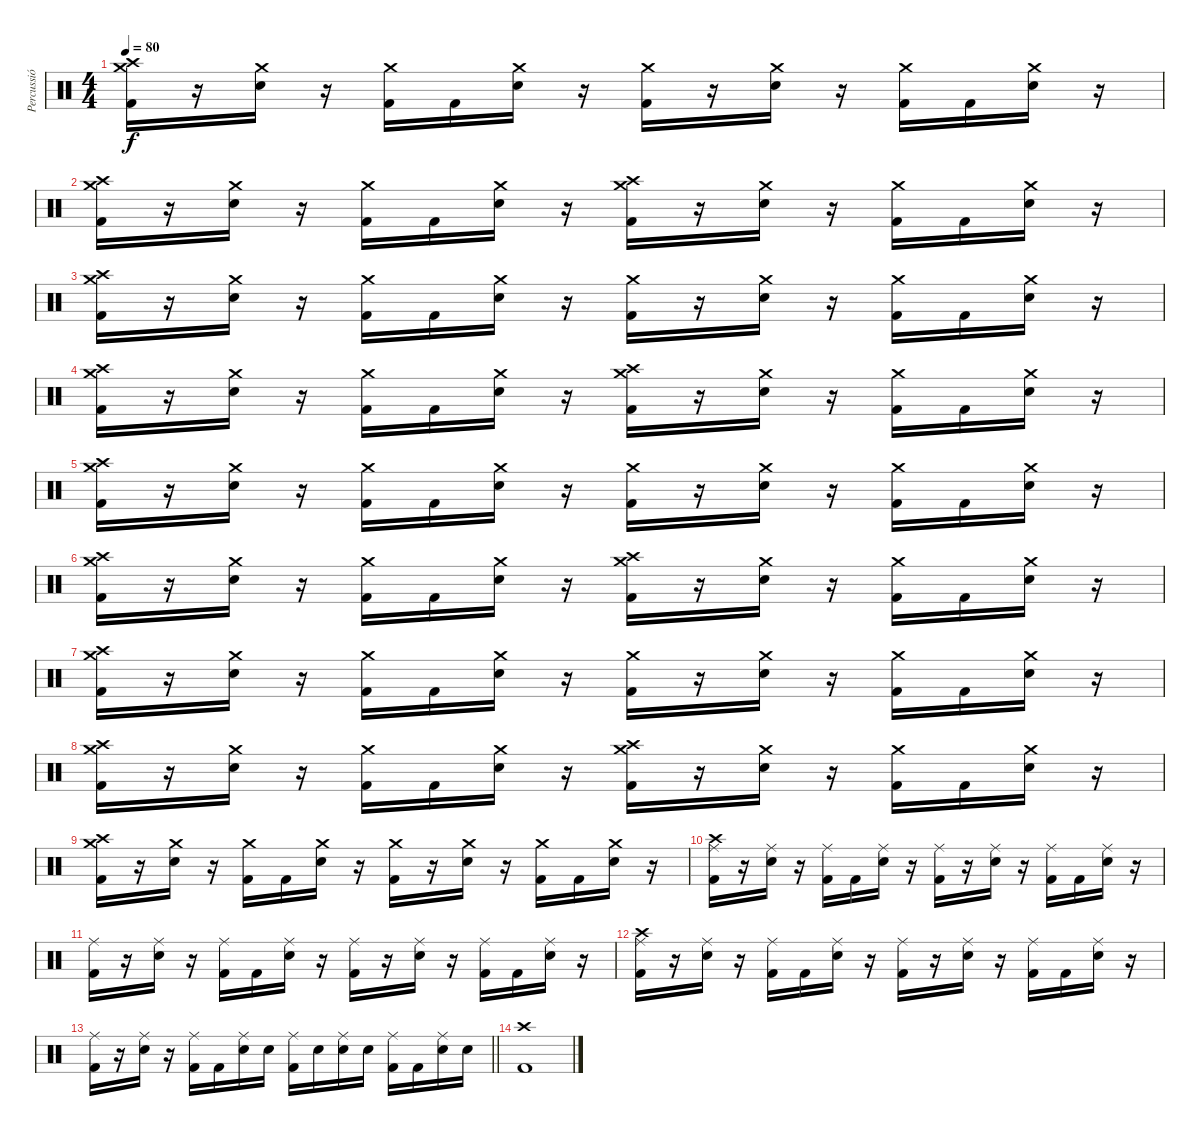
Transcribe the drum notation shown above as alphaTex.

\track ("Percussió" "Percussió") {instrument percussion}
\staff {score}
\articulation defaults
\ts (4 4)
\tempo 80
\clef neutral
\ks c
("Crash high (hit)" "Crash medium (hit)" "Kick (hit) 2").16{dy f} r.16 ("Crash medium (hit)" "Electric Snare (hit)").16 r.16 ("Crash medium (hit)" "Kick (hit) 2").16 "Kick (hit) 2".16 ("Crash medium (hit)" "Electric Snare (hit)").16 r.16 ("Crash medium (hit)" "Kick (hit) 2").16 r.16 ("Crash medium (hit)" "Electric Snare (hit)").16 r.16 ("Crash medium (hit)" "Kick (hit) 2").16 "Kick (hit) 2".16 ("Crash medium (hit)" "Electric Snare (hit)").16 r.16 |
("Crash high (hit)" "Crash medium (hit)" "Kick (hit) 2").16 r.16 ("Crash medium (hit)" "Electric Snare (hit)").16 r.16 ("Crash medium (hit)" "Kick (hit) 2").16 "Kick (hit) 2".16 ("Crash medium (hit)" "Electric Snare (hit)").16 r.16 ("Crash high (hit)" "Crash medium (hit)" "Kick (hit) 2").16 r.16 ("Crash medium (hit)" "Electric Snare (hit)").16 r.16 ("Crash medium (hit)" "Kick (hit) 2").16 "Kick (hit) 2".16 ("Crash medium (hit)" "Electric Snare (hit)").16 r.16 |
("Crash high (hit)" "Crash medium (hit)" "Kick (hit) 2").16 r.16 ("Crash medium (hit)" "Electric Snare (hit)").16 r.16 ("Crash medium (hit)" "Kick (hit) 2").16 "Kick (hit) 2".16 ("Crash medium (hit)" "Electric Snare (hit)").16 r.16 ("Crash medium (hit)" "Kick (hit) 2").16 r.16 ("Crash medium (hit)" "Electric Snare (hit)").16 r.16 ("Crash medium (hit)" "Kick (hit) 2").16 "Kick (hit) 2".16 ("Crash medium (hit)" "Electric Snare (hit)").16 r.16 |
("Crash high (hit)" "Crash medium (hit)" "Kick (hit) 2").16 r.16 ("Crash medium (hit)" "Electric Snare (hit)").16 r.16 ("Crash medium (hit)" "Kick (hit) 2").16 "Kick (hit) 2".16 ("Crash medium (hit)" "Electric Snare (hit)").16 r.16 ("Crash high (hit)" "Crash medium (hit)" "Kick (hit) 2").16 r.16 ("Crash medium (hit)" "Electric Snare (hit)").16 r.16 ("Crash medium (hit)" "Kick (hit) 2").16 "Kick (hit) 2".16 ("Crash medium (hit)" "Electric Snare (hit)").16 r.16 |
("Crash high (hit)" "Crash medium (hit)" "Kick (hit) 2").16 r.16 ("Crash medium (hit)" "Electric Snare (hit)").16 r.16 ("Crash medium (hit)" "Kick (hit) 2").16 "Kick (hit) 2".16 ("Crash medium (hit)" "Electric Snare (hit)").16 r.16 ("Crash medium (hit)" "Kick (hit) 2").16 r.16 ("Crash medium (hit)" "Electric Snare (hit)").16 r.16 ("Crash medium (hit)" "Kick (hit) 2").16 "Kick (hit) 2".16 ("Crash medium (hit)" "Electric Snare (hit)").16 r.16 |
("Crash high (hit)" "Crash medium (hit)" "Kick (hit) 2").16 r.16 ("Crash medium (hit)" "Electric Snare (hit)").16 r.16 ("Crash medium (hit)" "Kick (hit) 2").16 "Kick (hit) 2".16 ("Crash medium (hit)" "Electric Snare (hit)").16 r.16 ("Crash high (hit)" "Crash medium (hit)" "Kick (hit) 2").16 r.16 ("Crash medium (hit)" "Electric Snare (hit)").16 r.16 ("Crash medium (hit)" "Kick (hit) 2").16 "Kick (hit) 2".16 ("Crash medium (hit)" "Electric Snare (hit)").16 r.16 |
("Crash high (hit)" "Crash medium (hit)" "Kick (hit) 2").16 r.16 ("Crash medium (hit)" "Electric Snare (hit)").16 r.16 ("Crash medium (hit)" "Kick (hit) 2").16 "Kick (hit) 2".16 ("Crash medium (hit)" "Electric Snare (hit)").16 r.16 ("Crash medium (hit)" "Kick (hit) 2").16 r.16 ("Crash medium (hit)" "Electric Snare (hit)").16 r.16 ("Crash medium (hit)" "Kick (hit) 2").16 "Kick (hit) 2".16 ("Crash medium (hit)" "Electric Snare (hit)").16 r.16 |
("Crash high (hit)" "Crash medium (hit)" "Kick (hit) 2").16 r.16 ("Crash medium (hit)" "Electric Snare (hit)").16 r.16 ("Crash medium (hit)" "Kick (hit) 2").16 "Kick (hit) 2".16 ("Crash medium (hit)" "Electric Snare (hit)").16 r.16 ("Crash high (hit)" "Crash medium (hit)" "Kick (hit) 2").16 r.16 ("Crash medium (hit)" "Electric Snare (hit)").16 r.16 ("Crash medium (hit)" "Kick (hit) 2").16 "Kick (hit) 2".16 ("Crash medium (hit)" "Electric Snare (hit)").16 r.16 |
("Crash high (hit)" "Crash medium (hit)" "Kick (hit) 2").16 r.16 ("Crash medium (hit)" "Electric Snare (hit)").16 r.16 ("Crash medium (hit)" "Kick (hit) 2").16 "Kick (hit) 2".16 ("Crash medium (hit)" "Electric Snare (hit)").16 r.16 ("Crash medium (hit)" "Kick (hit) 2").16 r.16 ("Crash medium (hit)" "Electric Snare (hit)").16 r.16 ("Crash medium (hit)" "Kick (hit) 2").16 "Kick (hit) 2".16 ("Crash medium (hit)" "Electric Snare (hit)").16 r.16 |
("Crash high (hit)" "Ride (middle)" "Kick (hit) 2").16 r.16 ("Ride (middle)" "Electric Snare (hit)").16 r.16 ("Ride (middle)" "Kick (hit) 2").16 "Kick (hit) 2".16 ("Ride (middle)" "Electric Snare (hit)").16 r.16 ("Ride (middle)" "Kick (hit) 2").16 r.16 ("Ride (middle)" "Electric Snare (hit)").16 r.16 ("Ride (middle)" "Kick (hit) 2").16 "Kick (hit) 2".16 ("Ride (middle)" "Electric Snare (hit)").16 r.16 |
("Ride (middle)" "Kick (hit) 2").16 r.16 ("Ride (middle)" "Electric Snare (hit)").16 r.16 ("Ride (middle)" "Kick (hit) 2").16 "Kick (hit) 2".16 ("Ride (middle)" "Electric Snare (hit)").16 r.16 ("Ride (middle)" "Kick (hit) 2").16 r.16 ("Ride (middle)" "Electric Snare (hit)").16 r.16 ("Ride (middle)" "Kick (hit) 2").16 "Kick (hit) 2".16 ("Ride (middle)" "Electric Snare (hit)").16 r.16 |
("Crash high (hit)" "Ride (middle)" "Kick (hit) 2").16 r.16 ("Ride (middle)" "Electric Snare (hit)").16 r.16 ("Ride (middle)" "Kick (hit) 2").16 "Kick (hit) 2".16 ("Ride (middle)" "Electric Snare (hit)").16 r.16 ("Ride (middle)" "Kick (hit) 2").16 r.16 ("Ride (middle)" "Electric Snare (hit)").16 r.16 ("Ride (middle)" "Kick (hit) 2").16 "Kick (hit) 2".16 ("Ride (middle)" "Electric Snare (hit)").16 r.16 |
\barLineRight lightlight
("Ride (middle)" "Kick (hit) 2").16 r.16 ("Ride (middle)" "Electric Snare (hit)").16 r.16 ("Ride (middle)" "Kick (hit) 2").16 "Kick (hit) 2".16 ("Ride (middle)" "Electric Snare (hit)").16 "Electric Snare (hit)".16 ("Ride (middle)" "Kick (hit) 2").16 "Electric Snare (hit)".16 ("Ride (middle)" "Electric Snare (hit)").16 "Electric Snare (hit)".16 ("Ride (middle)" "Kick (hit) 2").16 "Kick (hit) 2".16 ("Ride (middle)" "Electric Snare (hit)").16 "Electric Snare (hit)".16 |
("Crash high (hit)" "Kick (hit) 2").1{volume 0}
